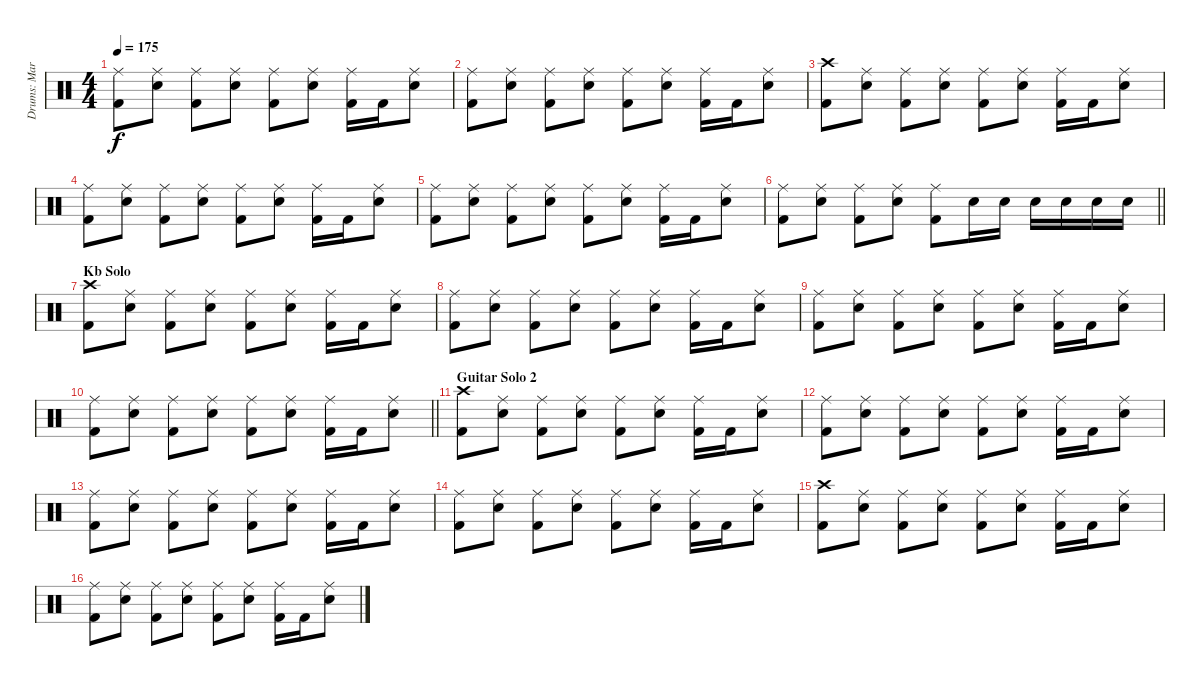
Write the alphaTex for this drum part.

\track ("Drums: Martin Herzinger" "Drums: Mar") {instrument percussion}
\staff {score}
\articulation defaults
\ts (4 4)
\tempo 175
\clef neutral
\ks aminor
("Ride (middle)" "Kick (hit) 2").8{dy f} ("Ride (middle)" "Snare (hit) 2").8 ("Ride (middle)" "Kick (hit) 2").8 ("Ride (middle)" "Snare (hit) 2").8 ("Ride (middle)" "Kick (hit) 2").8 ("Ride (middle)" "Snare (hit) 2").8 ("Ride (middle)" "Kick (hit) 2").16 "Kick (hit) 2".16 ("Ride (middle)" "Snare (hit) 2").8 |
("Ride (middle)" "Kick (hit) 2").8 ("Ride (middle)" "Snare (hit) 2").8 ("Ride (middle)" "Kick (hit) 2").8 ("Ride (middle)" "Snare (hit) 2").8 ("Ride (middle)" "Kick (hit) 2").8 ("Ride (middle)" "Snare (hit) 2").8 ("Ride (middle)" "Kick (hit) 2").16 "Kick (hit) 2".16 ("Ride (middle)" "Snare (hit) 2").8 |
("Crash high (hit)" "Kick (hit) 2").8 ("Ride (middle)" "Snare (hit) 2").8 ("Ride (middle)" "Kick (hit) 2").8 ("Ride (middle)" "Snare (hit) 2").8 ("Ride (middle)" "Kick (hit) 2").8 ("Ride (middle)" "Snare (hit) 2").8 ("Ride (middle)" "Kick (hit) 2").16 "Kick (hit) 2".16 ("Ride (middle)" "Snare (hit) 2").8 |
("Ride (middle)" "Kick (hit) 2").8 ("Ride (middle)" "Snare (hit) 2").8 ("Ride (middle)" "Kick (hit) 2").8 ("Ride (middle)" "Snare (hit) 2").8 ("Ride (middle)" "Kick (hit) 2").8 ("Ride (middle)" "Snare (hit) 2").8 ("Ride (middle)" "Kick (hit) 2").16 "Kick (hit) 2".16 ("Ride (middle)" "Snare (hit) 2").8 |
("Ride (middle)" "Kick (hit) 2").8 ("Ride (middle)" "Snare (hit) 2").8 ("Ride (middle)" "Kick (hit) 2").8 ("Ride (middle)" "Snare (hit) 2").8 ("Ride (middle)" "Kick (hit) 2").8 ("Ride (middle)" "Snare (hit) 2").8 ("Ride (middle)" "Kick (hit) 2").16 "Kick (hit) 2".16 ("Ride (middle)" "Snare (hit) 2").8 |
\barLineRight lightlight
("Ride (middle)" "Kick (hit) 2").8 ("Ride (middle)" "Snare (hit) 2").8 ("Ride (middle)" "Kick (hit) 2").8 ("Ride (middle)" "Snare (hit) 2").8 ("Ride (middle)" "Kick (hit) 2").8 "Snare (hit) 2".16 "Snare (hit) 2".16 "Snare (hit) 2".16 "Snare (hit) 2".16 "Snare (hit) 2".16 "Snare (hit) 2".16 |
\section ("" "Kb Solo")
("Crash high (hit)" "Kick (hit) 2").8 ("Ride (middle)" "Snare (hit) 2").8 ("Ride (middle)" "Kick (hit) 2").8 ("Ride (middle)" "Snare (hit) 2").8 ("Ride (middle)" "Kick (hit) 2").8 ("Ride (middle)" "Snare (hit) 2").8 ("Ride (middle)" "Kick (hit) 2").16 "Kick (hit) 2".16 ("Ride (middle)" "Snare (hit) 2").8 |
("Ride (middle)" "Kick (hit) 2").8 ("Ride (middle)" "Snare (hit) 2").8 ("Ride (middle)" "Kick (hit) 2").8 ("Ride (middle)" "Snare (hit) 2").8 ("Ride (middle)" "Kick (hit) 2").8 ("Ride (middle)" "Snare (hit) 2").8 ("Ride (middle)" "Kick (hit) 2").16 "Kick (hit) 2".16 ("Ride (middle)" "Snare (hit) 2").8 |
("Ride (middle)" "Kick (hit) 2").8 ("Ride (middle)" "Snare (hit) 2").8 ("Ride (middle)" "Kick (hit) 2").8 ("Ride (middle)" "Snare (hit) 2").8 ("Ride (middle)" "Kick (hit) 2").8 ("Ride (middle)" "Snare (hit) 2").8 ("Ride (middle)" "Kick (hit) 2").16 "Kick (hit) 2".16 ("Ride (middle)" "Snare (hit) 2").8 |
\barLineRight lightlight
("Ride (middle)" "Kick (hit) 2").8 ("Ride (middle)" "Snare (hit) 2").8 ("Ride (middle)" "Kick (hit) 2").8 ("Ride (middle)" "Snare (hit) 2").8 ("Ride (middle)" "Kick (hit) 2").8 ("Ride (middle)" "Snare (hit) 2").8 ("Ride (middle)" "Kick (hit) 2").16 "Kick (hit) 2".16 ("Ride (middle)" "Snare (hit) 2").8 |
\section ("" "Guitar Solo 2")
("Crash high (hit)" "Kick (hit) 2").8 ("Ride (middle)" "Snare (hit) 2").8 ("Ride (middle)" "Kick (hit) 2").8 ("Ride (middle)" "Snare (hit) 2").8 ("Ride (middle)" "Kick (hit) 2").8 ("Ride (middle)" "Snare (hit) 2").8 ("Ride (middle)" "Kick (hit) 2").16 "Kick (hit) 2".16 ("Ride (middle)" "Snare (hit) 2").8 |
("Ride (middle)" "Kick (hit) 2").8 ("Ride (middle)" "Snare (hit) 2").8 ("Ride (middle)" "Kick (hit) 2").8 ("Ride (middle)" "Snare (hit) 2").8 ("Ride (middle)" "Kick (hit) 2").8 ("Ride (middle)" "Snare (hit) 2").8 ("Ride (middle)" "Kick (hit) 2").16 "Kick (hit) 2".16 ("Ride (middle)" "Snare (hit) 2").8 |
("Ride (middle)" "Kick (hit) 2").8 ("Ride (middle)" "Snare (hit) 2").8 ("Ride (middle)" "Kick (hit) 2").8 ("Ride (middle)" "Snare (hit) 2").8 ("Ride (middle)" "Kick (hit) 2").8 ("Ride (middle)" "Snare (hit) 2").8 ("Ride (middle)" "Kick (hit) 2").16 "Kick (hit) 2".16 ("Ride (middle)" "Snare (hit) 2").8 |
("Ride (middle)" "Kick (hit) 2").8 ("Ride (middle)" "Snare (hit) 2").8 ("Ride (middle)" "Kick (hit) 2").8 ("Ride (middle)" "Snare (hit) 2").8 ("Ride (middle)" "Kick (hit) 2").8 ("Ride (middle)" "Snare (hit) 2").8 ("Ride (middle)" "Kick (hit) 2").16 "Kick (hit) 2".16 ("Ride (middle)" "Snare (hit) 2").8 |
("Crash high (hit)" "Kick (hit) 2").8 ("Ride (middle)" "Snare (hit) 2").8 ("Ride (middle)" "Kick (hit) 2").8 ("Ride (middle)" "Snare (hit) 2").8 ("Ride (middle)" "Kick (hit) 2").8 ("Ride (middle)" "Snare (hit) 2").8 ("Ride (middle)" "Kick (hit) 2").16 "Kick (hit) 2".16 ("Ride (middle)" "Snare (hit) 2").8 |
("Ride (middle)" "Kick (hit) 2").8 ("Ride (middle)" "Snare (hit) 2").8 ("Ride (middle)" "Kick (hit) 2").8 ("Ride (middle)" "Snare (hit) 2").8 ("Ride (middle)" "Kick (hit) 2").8 ("Ride (middle)" "Snare (hit) 2").8 ("Ride (middle)" "Kick (hit) 2").16 "Kick (hit) 2".16 ("Ride (middle)" "Snare (hit) 2").8
